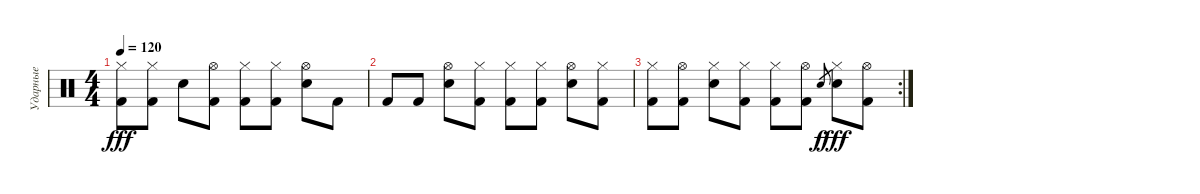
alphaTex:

\track ("Ударные" "Ударные") {instrument percussion}
\staff {score}
\articulation defaults
\ts (4 4)
\tempo 120
\clef neutral
\ks c
("Hi-Hat (closed)" "Kick (hit) 2").8{dy fff} ("Hi-Hat (closed)" "Kick (hit) 2").8 "Electric Snare (hit)".8 ("Hi-Hat (open)" "Kick (hit) 2").8 ("Hi-Hat (closed)" "Kick (hit) 2").8 ("Hi-Hat (closed)" "Kick (hit) 2").8 ("Hi-Hat (open)" "Electric Snare (hit)").8 "Kick (hit) 2".8 |
"Kick (hit) 2".8 "Kick (hit) 2".8 ("Hi-Hat (open)" "Electric Snare (hit)").8 ("Hi-Hat (closed)" "Kick (hit) 2").8 ("Hi-Hat (closed)" "Kick (hit) 2").8 ("Hi-Hat (closed)" "Kick (hit) 2").8 ("Hi-Hat (open)" "Electric Snare (hit)").8 ("Hi-Hat (closed)" "Kick (hit) 2").8 |
\rc 2
("Hi-Hat (closed)" "Kick (hit) 2").8 ("Hi-Hat (open)" "Kick (hit) 2").8 ("Hi-Hat (closed)" "Electric Snare (hit)").8 ("Hi-Hat (closed)" "Kick (hit) 2").8 ("Hi-Hat (closed)" "Kick (hit) 2").8 ("Hi-Hat (open)" "Kick (hit) 2").8 "Electric Snare (hit)".8{gr dy f} ("Hi-Hat (closed)" "Electric Snare (hit)").8{dy fff} ("Hi-Hat (open)" "Kick (hit) 2").8
